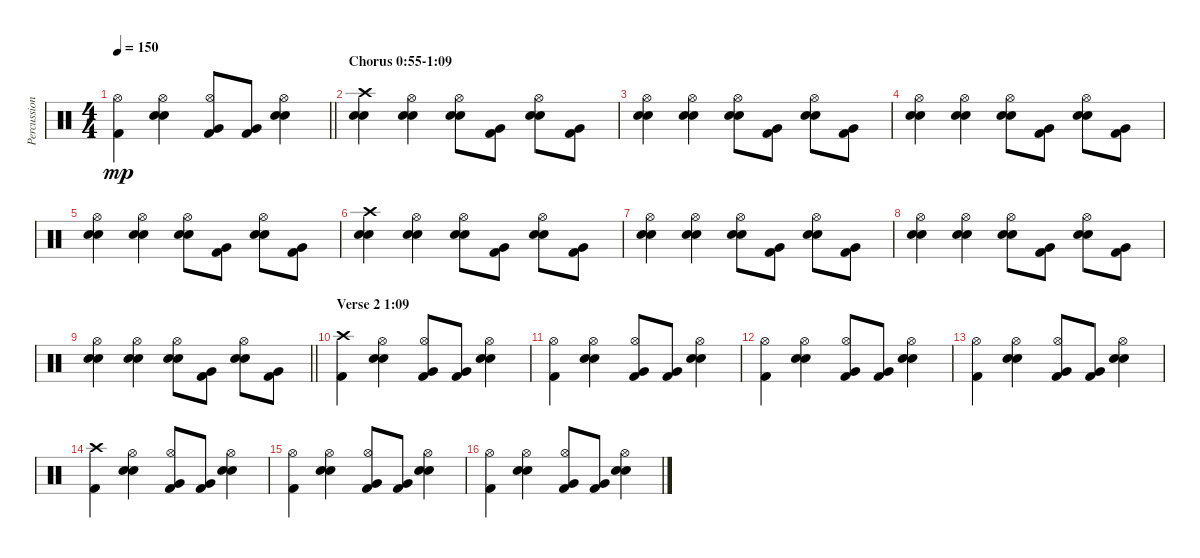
\track ("Percussion" "Percussion") {instrument percussion}
\staff {score}
\articulation defaults
\ts (4 4)
\tempo 150
\clef neutral
\barLineRight lightlight
\ks c
("Kick (hit) 2" "Hi-Hat (open)").4{dy mp} ("Electric Snare (hit)" "Snare (hit) 2" "Hi-Hat (open)").4 ("Kick (hit) 2" "Very Low Tom (hit)" "Hi-Hat (open)").8 ("Kick (hit) 2" "Very Low Tom (hit)").8 ("Electric Snare (hit)" "Snare (hit) 2" "Hi-Hat (open)").4 |
\section ("" "Chorus 0:55-1:09")
("Electric Snare (hit)" "Snare (hit) 2" "Crash high (hit)").4 ("Electric Snare (hit)" "Snare (hit) 2" "Hi-Hat (open)").4 ("Electric Snare (hit)" "Snare (hit) 2" "Hi-Hat (open)").8 ("Kick (hit) 2" "Very Low Tom (hit)").8 ("Electric Snare (hit)" "Snare (hit) 2" "Hi-Hat (open)").8 ("Kick (hit) 2" "Very Low Tom (hit)").8 |
("Electric Snare (hit)" "Snare (hit) 2" "Hi-Hat (open)").4 ("Electric Snare (hit)" "Snare (hit) 2" "Hi-Hat (open)").4 ("Electric Snare (hit)" "Snare (hit) 2" "Hi-Hat (open)").8 ("Kick (hit) 2" "Very Low Tom (hit)").8 ("Electric Snare (hit)" "Snare (hit) 2" "Hi-Hat (open)").8 ("Kick (hit) 2" "Very Low Tom (hit)").8 |
("Electric Snare (hit)" "Snare (hit) 2" "Hi-Hat (open)").4 ("Electric Snare (hit)" "Snare (hit) 2" "Hi-Hat (open)").4 ("Electric Snare (hit)" "Snare (hit) 2" "Hi-Hat (open)").8 ("Kick (hit) 2" "Very Low Tom (hit)").8 ("Electric Snare (hit)" "Snare (hit) 2" "Hi-Hat (open)").8 ("Kick (hit) 2" "Very Low Tom (hit)").8 |
("Electric Snare (hit)" "Snare (hit) 2" "Hi-Hat (open)").4 ("Electric Snare (hit)" "Snare (hit) 2" "Hi-Hat (open)").4 ("Electric Snare (hit)" "Snare (hit) 2" "Hi-Hat (open)").8 ("Kick (hit) 2" "Very Low Tom (hit)").8 ("Electric Snare (hit)" "Snare (hit) 2" "Hi-Hat (open)").8 ("Kick (hit) 2" "Very Low Tom (hit)").8 |
("Electric Snare (hit)" "Snare (hit) 2" "Crash high (hit)").4 ("Electric Snare (hit)" "Snare (hit) 2" "Hi-Hat (open)").4 ("Electric Snare (hit)" "Snare (hit) 2" "Hi-Hat (open)").8 ("Kick (hit) 2" "Very Low Tom (hit)").8 ("Electric Snare (hit)" "Snare (hit) 2" "Hi-Hat (open)").8 ("Kick (hit) 2" "Very Low Tom (hit)").8 |
("Electric Snare (hit)" "Snare (hit) 2" "Hi-Hat (open)").4 ("Electric Snare (hit)" "Snare (hit) 2" "Hi-Hat (open)").4 ("Electric Snare (hit)" "Snare (hit) 2" "Hi-Hat (open)").8 ("Kick (hit) 2" "Very Low Tom (hit)").8 ("Electric Snare (hit)" "Snare (hit) 2" "Hi-Hat (open)").8 ("Kick (hit) 2" "Very Low Tom (hit)").8 |
("Electric Snare (hit)" "Snare (hit) 2" "Hi-Hat (open)").4 ("Electric Snare (hit)" "Snare (hit) 2" "Hi-Hat (open)").4 ("Electric Snare (hit)" "Snare (hit) 2" "Hi-Hat (open)").8 ("Kick (hit) 2" "Very Low Tom (hit)").8 ("Electric Snare (hit)" "Snare (hit) 2" "Hi-Hat (open)").8 ("Kick (hit) 2" "Very Low Tom (hit)").8 |
\barLineRight lightlight
("Electric Snare (hit)" "Snare (hit) 2" "Hi-Hat (open)").4 ("Electric Snare (hit)" "Snare (hit) 2" "Hi-Hat (open)").4 ("Electric Snare (hit)" "Snare (hit) 2" "Hi-Hat (open)").8 ("Kick (hit) 2" "Very Low Tom (hit)").8 ("Electric Snare (hit)" "Snare (hit) 2" "Hi-Hat (open)").8 ("Kick (hit) 2" "Very Low Tom (hit)").8 |
\section ("" "Verse 2 1:09")
("Kick (hit) 2" "Crash high (hit)").4 ("Electric Snare (hit)" "Snare (hit) 2" "Hi-Hat (open)").4 ("Kick (hit) 2" "Very Low Tom (hit)" "Hi-Hat (open)").8 ("Kick (hit) 2" "Very Low Tom (hit)").8 ("Electric Snare (hit)" "Snare (hit) 2" "Hi-Hat (open)").4 |
("Kick (hit) 2" "Hi-Hat (open)").4 ("Electric Snare (hit)" "Snare (hit) 2" "Hi-Hat (open)").4 ("Kick (hit) 2" "Very Low Tom (hit)" "Hi-Hat (open)").8 ("Kick (hit) 2" "Very Low Tom (hit)").8 ("Electric Snare (hit)" "Snare (hit) 2" "Hi-Hat (open)").4 |
("Kick (hit) 2" "Hi-Hat (open)").4 ("Electric Snare (hit)" "Snare (hit) 2" "Hi-Hat (open)").4 ("Kick (hit) 2" "Very Low Tom (hit)" "Hi-Hat (open)").8 ("Kick (hit) 2" "Very Low Tom (hit)").8 ("Electric Snare (hit)" "Snare (hit) 2" "Hi-Hat (open)").4 |
("Kick (hit) 2" "Hi-Hat (open)").4 ("Electric Snare (hit)" "Snare (hit) 2" "Hi-Hat (open)").4 ("Kick (hit) 2" "Very Low Tom (hit)" "Hi-Hat (open)").8 ("Kick (hit) 2" "Very Low Tom (hit)").8 ("Electric Snare (hit)" "Snare (hit) 2" "Hi-Hat (open)").4 |
("Kick (hit) 2" "Crash high (hit)").4 ("Electric Snare (hit)" "Snare (hit) 2" "Hi-Hat (open)").4 ("Kick (hit) 2" "Very Low Tom (hit)" "Hi-Hat (open)").8 ("Kick (hit) 2" "Very Low Tom (hit)").8 ("Electric Snare (hit)" "Snare (hit) 2" "Hi-Hat (open)").4 |
("Kick (hit) 2" "Hi-Hat (open)").4 ("Electric Snare (hit)" "Snare (hit) 2" "Hi-Hat (open)").4 ("Kick (hit) 2" "Very Low Tom (hit)" "Hi-Hat (open)").8 ("Kick (hit) 2" "Very Low Tom (hit)").8 ("Electric Snare (hit)" "Snare (hit) 2" "Hi-Hat (open)").4 |
("Kick (hit) 2" "Hi-Hat (open)").4 ("Electric Snare (hit)" "Snare (hit) 2" "Hi-Hat (open)").4 ("Kick (hit) 2" "Very Low Tom (hit)" "Hi-Hat (open)").8 ("Kick (hit) 2" "Very Low Tom (hit)").8 ("Electric Snare (hit)" "Snare (hit) 2" "Hi-Hat (open)").4
